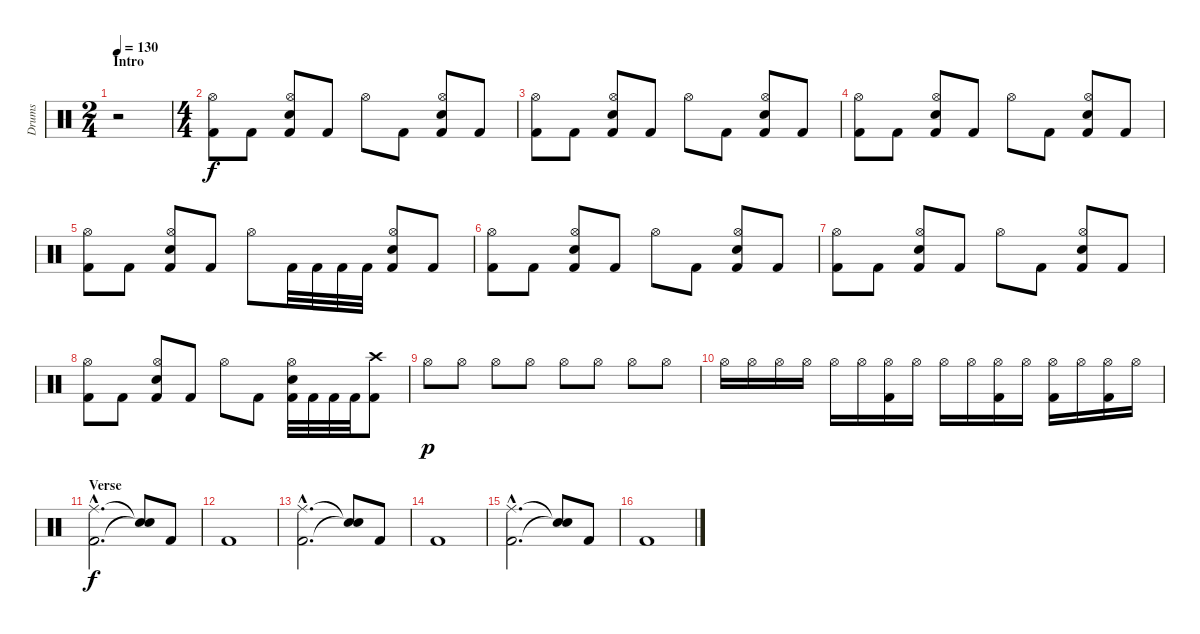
\track ("Drums" "Drums") {instrument percussion}
\staff {score}
\articulation defaults
\ts (2 4)
\section ("" "Intro")
\tempo 130
\clef neutral
\ks c
r.2{dy f} |
\ts (4 4)
("Kick (hit) 2" "Hi-Hat (open)").8 "Kick (hit) 2".8 ("Kick (hit) 2" "Hi-Hat (open)" "Snare (hit) 2").8 "Kick (hit) 2".8 "Hi-Hat (open)".8 "Kick (hit) 2".8 ("Kick (hit) 2" "Hi-Hat (open)" "Snare (hit) 2").8 "Kick (hit) 2".8 |
("Kick (hit) 2" "Hi-Hat (open)").8 "Kick (hit) 2".8 ("Kick (hit) 2" "Hi-Hat (open)" "Snare (hit) 2").8 "Kick (hit) 2".8 "Hi-Hat (open)".8 "Kick (hit) 2".8 ("Kick (hit) 2" "Hi-Hat (open)" "Snare (hit) 2").8 "Kick (hit) 2".8 |
("Kick (hit) 2" "Hi-Hat (open)").8 "Kick (hit) 2".8 ("Kick (hit) 2" "Hi-Hat (open)" "Snare (hit) 2").8 "Kick (hit) 2".8 "Hi-Hat (open)".8 "Kick (hit) 2".8 ("Kick (hit) 2" "Hi-Hat (open)" "Snare (hit) 2").8 "Kick (hit) 2".8 |
("Kick (hit) 2" "Hi-Hat (open)").8 "Kick (hit) 2".8 ("Kick (hit) 2" "Hi-Hat (open)" "Snare (hit) 2").8 "Kick (hit) 2".8 "Hi-Hat (open)".8 "Kick (hit) 2".32 "Kick (hit) 2".32 "Kick (hit) 2".32 "Kick (hit) 2".32 ("Kick (hit) 2" "Hi-Hat (open)" "Snare (hit) 2").8 "Kick (hit) 2".8 |
("Kick (hit) 2" "Hi-Hat (open)").8 "Kick (hit) 2".8 ("Kick (hit) 2" "Hi-Hat (open)" "Snare (hit) 2").8 "Kick (hit) 2".8 "Hi-Hat (open)".8 "Kick (hit) 2".8 ("Kick (hit) 2" "Hi-Hat (open)" "Snare (hit) 2").8 "Kick (hit) 2".8 |
("Kick (hit) 2" "Hi-Hat (open)").8 "Kick (hit) 2".8 ("Kick (hit) 2" "Hi-Hat (open)" "Snare (hit) 2").8 "Kick (hit) 2".8 "Hi-Hat (open)".8 "Kick (hit) 2".8 ("Kick (hit) 2" "Hi-Hat (open)" "Snare (hit) 2").8 "Kick (hit) 2".8 |
("Kick (hit) 2" "Hi-Hat (open)").8 "Kick (hit) 2".8 ("Kick (hit) 2" "Hi-Hat (open)" "Snare (hit) 2").8 "Kick (hit) 2".8 "Hi-Hat (open)".8 "Kick (hit) 2".8 ("Kick (hit) 2" "Hi-Hat (open)" "Snare (hit) 2").32 "Kick (hit) 2".32 "Kick (hit) 2".32 "Kick (hit) 2".32 ("Kick (hit) 2" "Crash high (hit)").8 |
"Hi-Hat (open)".8{dy p} "Hi-Hat (open)".8 "Hi-Hat (open)".8 "Hi-Hat (open)".8 "Hi-Hat (open)".8 "Hi-Hat (open)".8 "Hi-Hat (open)".8 "Hi-Hat (open)".8 |
"Hi-Hat (open)".16 "Hi-Hat (open)".16 "Hi-Hat (open)".16 "Hi-Hat (open)".16 "Hi-Hat (open)".16 "Hi-Hat (open)".16 ("Kick (hit) 2" "Hi-Hat (open)").16 "Hi-Hat (open)".16 "Hi-Hat (open)".16 "Hi-Hat (open)".16 ("Kick (hit) 2" "Hi-Hat (open)").16 "Hi-Hat (open)".16 ("Kick (hit) 2" "Hi-Hat (open)").16 "Hi-Hat (open)".16 ("Kick (hit) 2" "Hi-Hat (open)").16 "Hi-Hat (open)".16 |
\section ("" "Verse")
("Kick (hit) 2"{hac} "Ride (middle)"{hac}).2{d dy f} ("Snare (hit)"{t} "Snare (hit)"{t}).8 "Kick (hit) 2".8 |
"Kick (hit) 2".1 |
("Kick (hit) 2"{hac} "Ride (middle)"{hac}).2{d} ("Snare (hit)"{t} "Snare (hit)"{t}).8 "Kick (hit) 2".8 |
"Kick (hit) 2".1 |
("Kick (hit) 2"{hac} "Ride (middle)"{hac}).2{d} ("Snare (hit)"{t} "Snare (hit)"{t}).8 "Kick (hit) 2".8 |
"Kick (hit) 2".1
